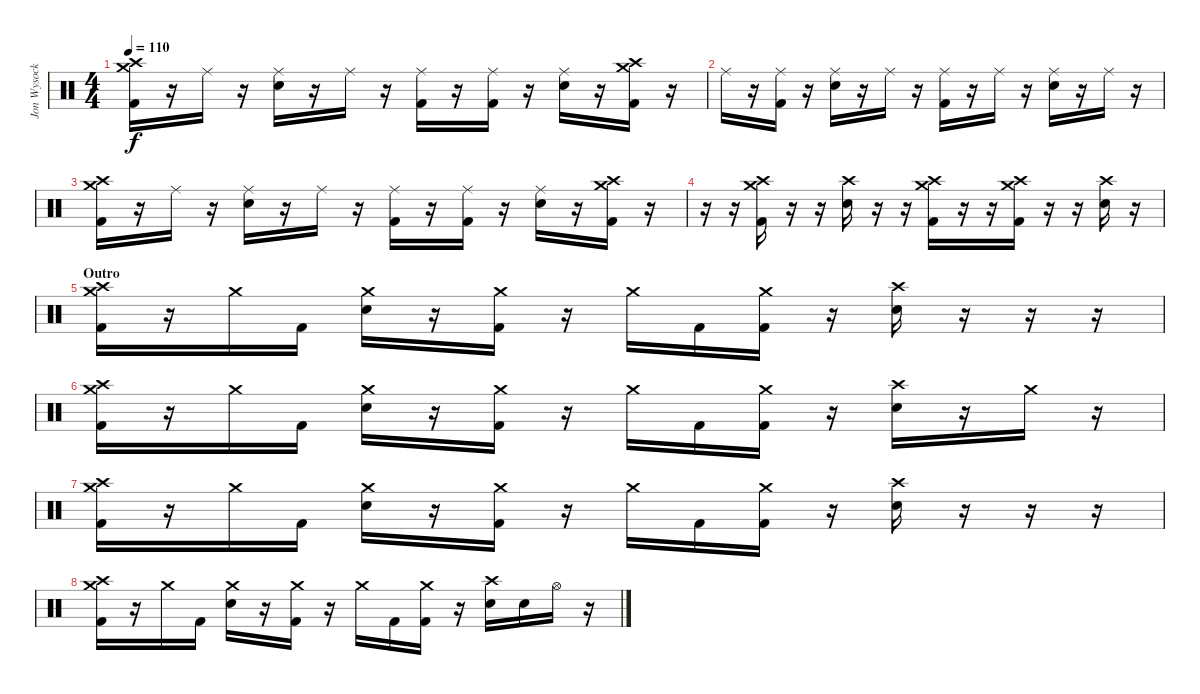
\track ("Jon Wysocki" "Jon Wysock") {instrument percussion}
\staff {score}
\articulation defaults
\ts (4 4)
\tempo 110
\clef neutral
\ks c
("Crash medium (hit)" "Crash high (hit)" "Kick (hit) 2").16{dy f} r.16 "Ride (middle)".16 r.16 ("Ride (middle)" "Snare (hit) 2").16 r.16 "Ride (middle)".16 r.16 ("Ride (middle)" "Kick (hit) 2").16 r.16 ("Ride (middle)" "Kick (hit) 2").16 r.16 ("Ride (middle)" "Snare (hit) 2").16 r.16 ("Crash medium (hit)" "Crash high (hit)" "Kick (hit) 2").16 r.16 |
"Ride (middle)".16 r.16 ("Ride (middle)" "Kick (hit) 2").16 r.16 ("Ride (middle)" "Snare (hit) 2").16 r.16 "Ride (middle)".16 r.16 ("Ride (middle)" "Kick (hit) 2").16 r.16 "Ride (middle)".16 r.16 ("Ride (middle)" "Snare (hit) 2").16 r.16 "Ride (middle)".16 r.16 |
("Crash medium (hit)" "Crash high (hit)" "Kick (hit) 2").16 r.16 "Ride (middle)".16 r.16 ("Ride (middle)" "Snare (hit) 2").16 r.16 "Ride (middle)".16 r.16 ("Ride (middle)" "Kick (hit) 2").16 r.16 ("Ride (middle)" "Kick (hit) 2").16 r.16 ("Ride (middle)" "Snare (hit) 2").16 r.16 ("Crash medium (hit)" "Crash high (hit)" "Kick (hit) 2").16 r.16 |
r.16 r.16 ("Crash medium (hit)" "Crash high (hit)" "Kick (hit) 2").16 r.16 r.16 ("Crash high (hit)" "Snare (hit) 2").16 r.16 r.16 ("Crash medium (hit)" "Crash high (hit)" "Kick (hit) 2").16 r.16 r.16 ("Crash medium (hit)" "Crash high (hit)" "Kick (hit) 2").16 r.16 r.16 ("Crash high (hit)" "Snare (hit) 2").16 r.16 |
\section ("" "Outro")
("Crash medium (hit)" "Crash high (hit)" "Kick (hit) 2").16 r.16 "Crash medium (hit)".16 "Kick (hit) 2".16 ("Crash medium (hit)" "Snare (hit) 2").16 r.16 ("Crash medium (hit)" "Kick (hit) 2").16 r.16 "Crash medium (hit)".16 "Kick (hit) 2".16 ("Crash medium (hit)" "Kick (hit) 2").16 r.16 ("Crash high (hit)" "Snare (hit) 2").16 r.16 r.16 r.16 |
("Crash medium (hit)" "Crash high (hit)" "Kick (hit) 2").16 r.16 "Crash medium (hit)".16 "Kick (hit) 2".16 ("Crash medium (hit)" "Snare (hit) 2").16 r.16 ("Crash medium (hit)" "Kick (hit) 2").16 r.16 "Crash medium (hit)".16 "Kick (hit) 2".16 ("Crash medium (hit)" "Kick (hit) 2").16 r.16 ("Crash high (hit)" "Snare (hit) 2").16 r.16 "Crash medium (hit)".16 r.16 |
("Crash medium (hit)" "Crash high (hit)" "Kick (hit) 2").16 r.16 "Crash medium (hit)".16 "Kick (hit) 2".16 ("Crash medium (hit)" "Snare (hit) 2").16 r.16 ("Crash medium (hit)" "Kick (hit) 2").16 r.16 "Crash medium (hit)".16 "Kick (hit) 2".16 ("Crash medium (hit)" "Kick (hit) 2").16 r.16 ("Crash high (hit)" "Snare (hit) 2").16 r.16 r.16 r.16 |
("Crash medium (hit)" "Crash high (hit)" "Kick (hit) 2").16 r.16 "Crash medium (hit)".16 "Kick (hit) 2".16 ("Crash medium (hit)" "Snare (hit) 2").16 r.16 ("Crash medium (hit)" "Kick (hit) 2").16 r.16 "Crash medium (hit)".16 "Kick (hit) 2".16 ("Crash medium (hit)" "Kick (hit) 2").16 r.16 ("Crash high (hit)" "Snare (hit) 2").16 "Snare (hit) 2".16 "Hi-Hat (open)".16 r.16
